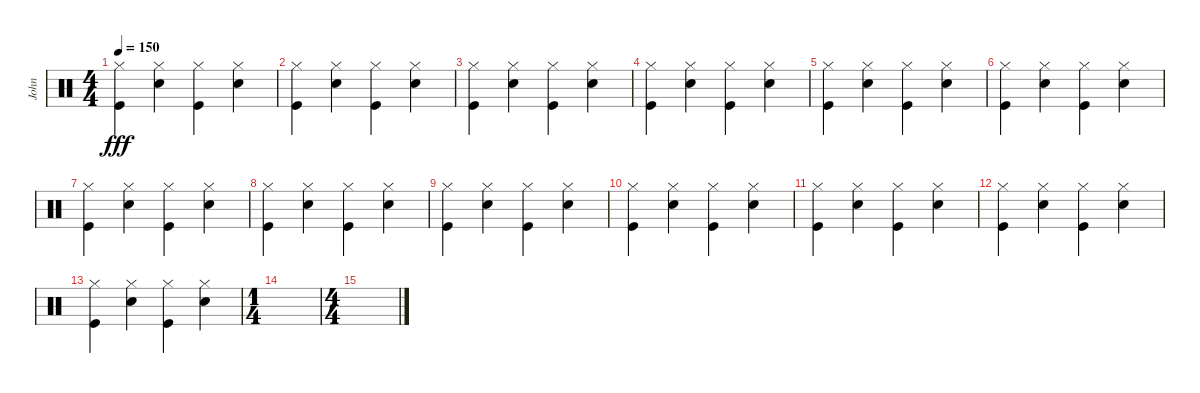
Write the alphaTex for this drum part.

\track ("John" "John") {instrument percussion}
\staff {score}
\articulation defaults
\ts (4 4)
\tempo 150
\clef neutral
\ks c
("Hi-Hat (closed)" "Kick (hit)").4{dy fff} ("Hi-Hat (closed)" "Snare (hit) 2").4 ("Hi-Hat (closed)" "Kick (hit)").4 ("Hi-Hat (closed)" "Snare (hit) 2").4 |
("Hi-Hat (closed)" "Kick (hit)").4 ("Hi-Hat (closed)" "Snare (hit) 2").4 ("Hi-Hat (closed)" "Kick (hit)").4 ("Hi-Hat (closed)" "Snare (hit) 2").4 |
("Hi-Hat (closed)" "Kick (hit)").4 ("Hi-Hat (closed)" "Snare (hit) 2").4 ("Hi-Hat (closed)" "Kick (hit)").4 ("Hi-Hat (closed)" "Snare (hit) 2").4 |
("Hi-Hat (closed)" "Kick (hit)").4 ("Hi-Hat (closed)" "Snare (hit) 2").4 ("Hi-Hat (closed)" "Kick (hit)").4 ("Hi-Hat (closed)" "Snare (hit) 2").4 |
("Hi-Hat (closed)" "Kick (hit)").4 ("Hi-Hat (closed)" "Snare (hit) 2").4 ("Hi-Hat (closed)" "Kick (hit)").4 ("Hi-Hat (closed)" "Snare (hit) 2").4 |
("Hi-Hat (closed)" "Kick (hit)").4 ("Hi-Hat (closed)" "Snare (hit) 2").4 ("Hi-Hat (closed)" "Kick (hit)").4 ("Hi-Hat (closed)" "Snare (hit) 2").4 |
("Hi-Hat (closed)" "Kick (hit)").4 ("Hi-Hat (closed)" "Snare (hit) 2").4 ("Hi-Hat (closed)" "Kick (hit)").4 ("Hi-Hat (closed)" "Snare (hit) 2").4 |
("Hi-Hat (closed)" "Kick (hit)").4 ("Hi-Hat (closed)" "Snare (hit) 2").4 ("Hi-Hat (closed)" "Kick (hit)").4 ("Hi-Hat (closed)" "Snare (hit) 2").4 |
("Hi-Hat (closed)" "Kick (hit)").4 ("Hi-Hat (closed)" "Snare (hit) 2").4 ("Hi-Hat (closed)" "Kick (hit)").4 ("Hi-Hat (closed)" "Snare (hit) 2").4 |
("Hi-Hat (closed)" "Kick (hit)").4 ("Hi-Hat (closed)" "Snare (hit) 2").4 ("Hi-Hat (closed)" "Kick (hit)").4 ("Hi-Hat (closed)" "Snare (hit) 2").4 |
("Hi-Hat (closed)" "Kick (hit)").4 ("Hi-Hat (closed)" "Snare (hit) 2").4 ("Hi-Hat (closed)" "Kick (hit)").4 ("Hi-Hat (closed)" "Snare (hit) 2").4 |
("Hi-Hat (closed)" "Kick (hit)").4 ("Hi-Hat (closed)" "Snare (hit) 2").4 ("Hi-Hat (closed)" "Kick (hit)").4 ("Hi-Hat (closed)" "Snare (hit) 2").4 |
("Hi-Hat (closed)" "Kick (hit)").4 ("Hi-Hat (closed)" "Snare (hit) 2").4 ("Hi-Hat (closed)" "Kick (hit)").4 ("Hi-Hat (closed)" "Snare (hit) 2").4 |
\ts (1 4)
|
\ts (4 4)
